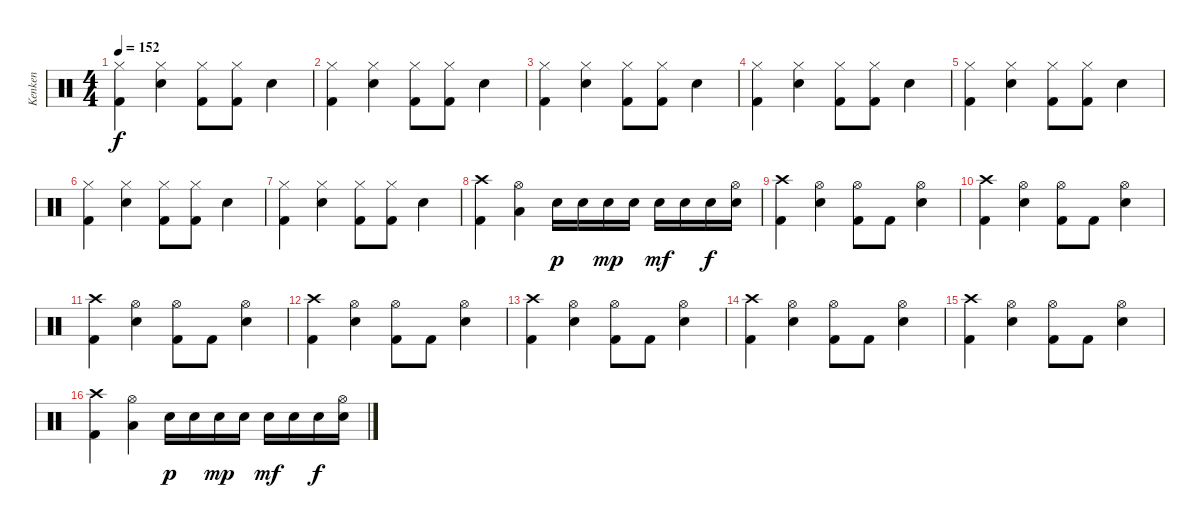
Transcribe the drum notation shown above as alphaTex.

\track ("Kenken" "Kenken") {instrument percussion}
\staff {score}
\articulation defaults
\ts (4 4)
\tempo 152
\clef neutral
\ks c
("Hi-Hat (closed)" "Kick (hit) 2").4{dy f} ("Hi-Hat (closed)" "Electric Snare (hit)").4 ("Hi-Hat (closed)" "Kick (hit) 2").8 ("Hi-Hat (closed)" "Kick (hit) 2").8 "Electric Snare (hit)".4 |
("Hi-Hat (closed)" "Kick (hit) 2").4 ("Hi-Hat (closed)" "Electric Snare (hit)").4 ("Hi-Hat (closed)" "Kick (hit) 2").8 ("Hi-Hat (closed)" "Kick (hit) 2").8 "Electric Snare (hit)".4 |
("Hi-Hat (closed)" "Kick (hit) 2").4 ("Hi-Hat (closed)" "Electric Snare (hit)").4 ("Hi-Hat (closed)" "Kick (hit) 2").8 ("Hi-Hat (closed)" "Kick (hit) 2").8 "Electric Snare (hit)".4 |
("Hi-Hat (closed)" "Kick (hit) 2").4 ("Hi-Hat (closed)" "Electric Snare (hit)").4 ("Hi-Hat (closed)" "Kick (hit) 2").8 ("Hi-Hat (closed)" "Kick (hit) 2").8 "Electric Snare (hit)".4 |
("Hi-Hat (closed)" "Kick (hit) 2").4 ("Hi-Hat (closed)" "Electric Snare (hit)").4 ("Hi-Hat (closed)" "Kick (hit) 2").8 ("Hi-Hat (closed)" "Kick (hit) 2").8 "Electric Snare (hit)".4 |
("Hi-Hat (closed)" "Kick (hit) 2").4 ("Hi-Hat (closed)" "Electric Snare (hit)").4 ("Hi-Hat (closed)" "Kick (hit) 2").8 ("Hi-Hat (closed)" "Kick (hit) 2").8 "Electric Snare (hit)".4 |
("Hi-Hat (closed)" "Kick (hit) 2").4 ("Hi-Hat (closed)" "Electric Snare (hit)").4 ("Hi-Hat (closed)" "Kick (hit) 2").8 ("Hi-Hat (closed)" "Kick (hit) 2").8 "Electric Snare (hit)".4 |
("Crash high (hit)" "Kick (hit) 2").4 ("Hi-Hat (open)" "Low Tom (hit)").4 "Electric Snare (hit)".16{dy p} "Electric Snare (hit)".16 "Electric Snare (hit)".16{dy mp} "Electric Snare (hit)".16 "Electric Snare (hit)".16{dy mf} "Electric Snare (hit)".16 "Electric Snare (hit)".16{dy f} ("Hi-Hat (open)" "Electric Snare (hit)").16 |
("Crash high (hit)" "Kick (hit) 2").4 ("Hi-Hat (open)" "Electric Snare (hit)").4 ("Hi-Hat (open)" "Kick (hit) 2").8 "Kick (hit) 2".8 ("Hi-Hat (open)" "Electric Snare (hit)").4 |
("Crash high (hit)" "Kick (hit) 2").4 ("Hi-Hat (open)" "Electric Snare (hit)").4 ("Hi-Hat (open)" "Kick (hit) 2").8 "Kick (hit) 2".8 ("Hi-Hat (open)" "Electric Snare (hit)").4 |
("Crash high (hit)" "Kick (hit) 2").4 ("Hi-Hat (open)" "Electric Snare (hit)").4 ("Hi-Hat (open)" "Kick (hit) 2").8 "Kick (hit) 2".8 ("Hi-Hat (open)" "Electric Snare (hit)").4 |
("Crash high (hit)" "Kick (hit) 2").4 ("Hi-Hat (open)" "Electric Snare (hit)").4 ("Hi-Hat (open)" "Kick (hit) 2").8 "Kick (hit) 2".8 ("Hi-Hat (open)" "Electric Snare (hit)").4 |
("Crash high (hit)" "Kick (hit) 2").4 ("Hi-Hat (open)" "Electric Snare (hit)").4 ("Hi-Hat (open)" "Kick (hit) 2").8 "Kick (hit) 2".8 ("Hi-Hat (open)" "Electric Snare (hit)").4 |
("Crash high (hit)" "Kick (hit) 2").4 ("Hi-Hat (open)" "Electric Snare (hit)").4 ("Hi-Hat (open)" "Kick (hit) 2").8 "Kick (hit) 2".8 ("Hi-Hat (open)" "Electric Snare (hit)").4 |
("Crash high (hit)" "Kick (hit) 2").4 ("Hi-Hat (open)" "Electric Snare (hit)").4 ("Hi-Hat (open)" "Kick (hit) 2").8 "Kick (hit) 2".8 ("Hi-Hat (open)" "Electric Snare (hit)").4 |
("Crash high (hit)" "Kick (hit) 2").4 ("Hi-Hat (open)" "Low Tom (hit)").4 "Electric Snare (hit)".16{dy p} "Electric Snare (hit)".16 "Electric Snare (hit)".16{dy mp} "Electric Snare (hit)".16 "Electric Snare (hit)".16{dy mf} "Electric Snare (hit)".16 "Electric Snare (hit)".16{dy f} ("Hi-Hat (open)" "Electric Snare (hit)").16
